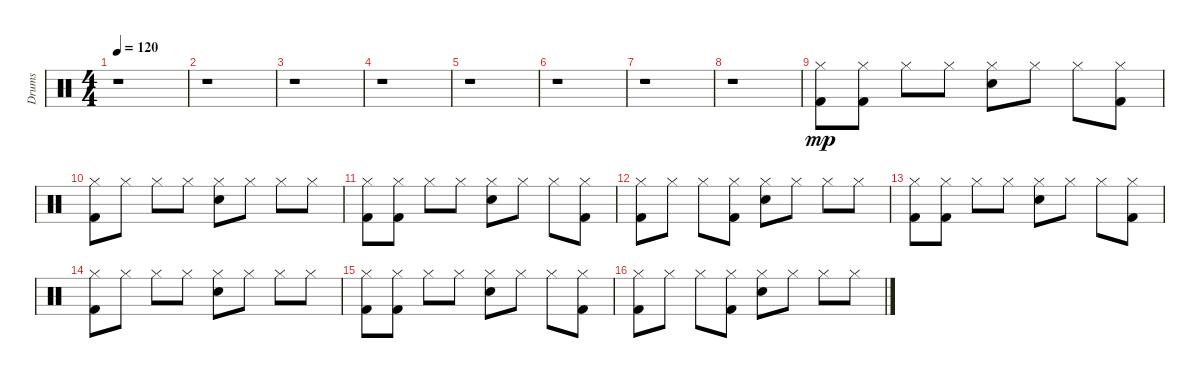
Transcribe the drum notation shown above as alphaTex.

\track ("Drums" "Drums") {instrument percussion}
\staff {score}
\articulation defaults
\ts (4 4)
\tempo 120
\clef neutral
\ks c
r.1{dy mp} |
r.1 |
r.1 |
r.1 |
r.1 |
r.1 |
r.1 |
r.1 |
("Hi-Hat (closed)" "Kick (hit) 2").8 ("Hi-Hat (closed)" "Kick (hit) 2").8 "Hi-Hat (closed)".8 "Hi-Hat (closed)".8 ("Hi-Hat (closed)" "Snare (hit) 2").8 "Hi-Hat (closed)".8 "Hi-Hat (closed)".8 ("Hi-Hat (closed)" "Kick (hit) 2").8 |
("Hi-Hat (closed)" "Kick (hit) 2").8 "Hi-Hat (closed)".8 "Hi-Hat (closed)".8 "Hi-Hat (closed)".8 ("Hi-Hat (closed)" "Snare (hit) 2").8 "Hi-Hat (closed)".8 "Hi-Hat (closed)".8 "Hi-Hat (closed)".8 |
("Hi-Hat (closed)" "Kick (hit) 2").8 ("Hi-Hat (closed)" "Kick (hit) 2").8 "Hi-Hat (closed)".8 "Hi-Hat (closed)".8 ("Hi-Hat (closed)" "Snare (hit) 2").8 "Hi-Hat (closed)".8 "Hi-Hat (closed)".8 ("Hi-Hat (closed)" "Kick (hit) 2").8 |
("Hi-Hat (closed)" "Kick (hit) 2").8 "Hi-Hat (closed)".8 "Hi-Hat (closed)".8 ("Hi-Hat (closed)" "Kick (hit) 2").8 ("Hi-Hat (closed)" "Snare (hit) 2").8 "Hi-Hat (closed)".8 "Hi-Hat (closed)".8 "Hi-Hat (closed)".8 |
("Hi-Hat (closed)" "Kick (hit) 2").8 ("Hi-Hat (closed)" "Kick (hit) 2").8 "Hi-Hat (closed)".8 "Hi-Hat (closed)".8 ("Hi-Hat (closed)" "Snare (hit) 2").8 "Hi-Hat (closed)".8 "Hi-Hat (closed)".8 ("Hi-Hat (closed)" "Kick (hit) 2").8 |
("Hi-Hat (closed)" "Kick (hit) 2").8 "Hi-Hat (closed)".8 "Hi-Hat (closed)".8 "Hi-Hat (closed)".8 ("Hi-Hat (closed)" "Snare (hit) 2").8 "Hi-Hat (closed)".8 "Hi-Hat (closed)".8 "Hi-Hat (closed)".8 |
("Hi-Hat (closed)" "Kick (hit) 2").8 ("Hi-Hat (closed)" "Kick (hit) 2").8 "Hi-Hat (closed)".8 "Hi-Hat (closed)".8 ("Hi-Hat (closed)" "Snare (hit) 2").8 "Hi-Hat (closed)".8 "Hi-Hat (closed)".8 ("Hi-Hat (closed)" "Kick (hit) 2").8 |
("Hi-Hat (closed)" "Kick (hit) 2").8 "Hi-Hat (closed)".8 "Hi-Hat (closed)".8 ("Hi-Hat (closed)" "Kick (hit) 2").8 ("Hi-Hat (closed)" "Snare (hit) 2").8 "Hi-Hat (closed)".8 "Hi-Hat (closed)".8 "Hi-Hat (closed)".8
